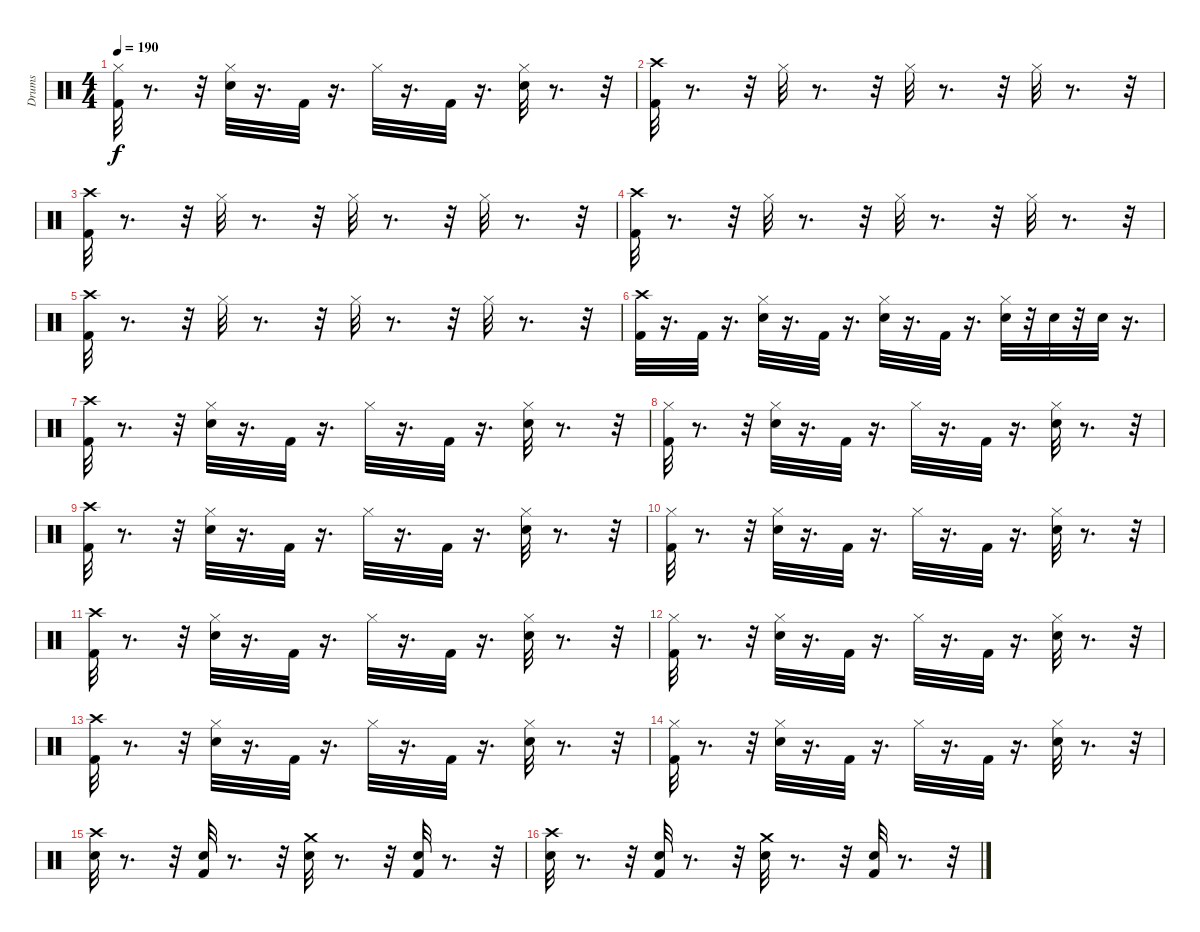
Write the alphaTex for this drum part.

\track ("Drums" "Drums") {instrument percussion}
\staff {score}
\articulation defaults
\ts (4 4)
\tempo 190
\clef neutral
\ks c
("Kick (hit) 2" "Hi-Hat (closed)").32{dy f} r.8{d} r.32 ("Snare (hit) 2" "Hi-Hat (closed)").32 r.16{d} "Kick (hit) 2".32 r.16{d} "Hi-Hat (closed)".32 r.16{d} "Kick (hit) 2".32 r.16{d} ("Snare (hit) 2" "Hi-Hat (closed)").32 r.8{d} r.32 |
("Crash high (hit)" "Kick (hit) 2").32 r.8{d} r.32 "Hi-Hat (closed)".32 r.8{d} r.32 "Hi-Hat (closed)".32 r.8{d} r.32 "Hi-Hat (closed)".32 r.8{d} r.32 |
("Kick (hit) 2" "Crash high (hit)").32 r.8{d} r.32 "Hi-Hat (closed)".32 r.8{d} r.32 "Hi-Hat (closed)".32 r.8{d} r.32 "Hi-Hat (closed)".32 r.8{d} r.32 |
("Kick (hit) 2" "Crash high (hit)").32 r.8{d} r.32 "Hi-Hat (closed)".32 r.8{d} r.32 "Hi-Hat (closed)".32 r.8{d} r.32 "Hi-Hat (closed)".32 r.8{d} r.32 |
("Crash high (hit)" "Kick (hit) 2").32 r.8{d} r.32 "Hi-Hat (closed)".32 r.8{d} r.32 "Hi-Hat (closed)".32 r.8{d} r.32 "Hi-Hat (closed)".32 r.8{d} r.32 |
("Crash high (hit)" "Kick (hit) 2").32 r.16{d} "Kick (hit) 2".32 r.16{d} ("Hi-Hat (closed)" "Snare (hit) 2").32 r.16{d} "Kick (hit) 2".32 r.16{d} ("Snare (hit) 2" "Hi-Hat (closed)").32 r.16{d} "Kick (hit) 2".32 r.16{d} ("Hi-Hat (closed)" "Snare (hit) 2").32 r.32 "Snare (hit) 2".32 r.32 "Snare (hit) 2".32 r.16{d} |
("Kick (hit) 2" "Crash high (hit)").32 r.8{d} r.32 ("Hi-Hat (closed)" "Snare (hit) 2").32 r.16{d} "Kick (hit) 2".32 r.16{d} "Hi-Hat (closed)".32 r.16{d} "Kick (hit) 2".32 r.16{d} ("Hi-Hat (closed)" "Snare (hit) 2").32 r.8{d} r.32 |
("Hi-Hat (closed)" "Kick (hit) 2").32 r.8{d} r.32 ("Snare (hit) 2" "Hi-Hat (closed)").32 r.16{d} "Kick (hit) 2".32 r.16{d} "Hi-Hat (closed)".32 r.16{d} "Kick (hit) 2".32 r.16{d} ("Snare (hit) 2" "Hi-Hat (closed)").32 r.8{d} r.32 |
("Kick (hit) 2" "Crash high (hit)").32 r.8{d} r.32 ("Hi-Hat (closed)" "Snare (hit) 2").32 r.16{d} "Kick (hit) 2".32 r.16{d} "Hi-Hat (closed)".32 r.16{d} "Kick (hit) 2".32 r.16{d} ("Hi-Hat (closed)" "Snare (hit) 2").32 r.8{d} r.32 |
("Hi-Hat (closed)" "Kick (hit) 2").32 r.8{d} r.32 ("Snare (hit) 2" "Hi-Hat (closed)").32 r.16{d} "Kick (hit) 2".32 r.16{d} "Hi-Hat (closed)".32 r.16{d} "Kick (hit) 2".32 r.16{d} ("Snare (hit) 2" "Hi-Hat (closed)").32 r.8{d} r.32 |
("Kick (hit) 2" "Crash high (hit)").32 r.8{d} r.32 ("Hi-Hat (closed)" "Snare (hit) 2").32 r.16{d} "Kick (hit) 2".32 r.16{d} "Hi-Hat (closed)".32 r.16{d} "Kick (hit) 2".32 r.16{d} ("Hi-Hat (closed)" "Snare (hit) 2").32 r.8{d} r.32 |
("Hi-Hat (closed)" "Kick (hit) 2").32 r.8{d} r.32 ("Snare (hit) 2" "Hi-Hat (closed)").32 r.16{d} "Kick (hit) 2".32 r.16{d} "Hi-Hat (closed)".32 r.16{d} "Kick (hit) 2".32 r.16{d} ("Snare (hit) 2" "Hi-Hat (closed)").32 r.8{d} r.32 |
("Kick (hit) 2" "Crash high (hit)").32 r.8{d} r.32 ("Hi-Hat (closed)" "Snare (hit) 2").32 r.16{d} "Kick (hit) 2".32 r.16{d} "Hi-Hat (closed)".32 r.16{d} "Kick (hit) 2".32 r.16{d} ("Hi-Hat (closed)" "Snare (hit) 2").32 r.8{d} r.32 |
("Hi-Hat (closed)" "Kick (hit) 2").32 r.8{d} r.32 ("Snare (hit) 2" "Hi-Hat (closed)").32 r.16{d} "Kick (hit) 2".32 r.16{d} "Hi-Hat (closed)".32 r.16{d} "Kick (hit) 2".32 r.16{d} ("Snare (hit) 2" "Hi-Hat (closed)").32 r.8{d} r.32 |
("Crash high (hit)" "Snare (hit) 2").32 r.8{d} r.32 ("Hand Clap (hit)" "Kick (hit) 2").32 r.8{d} r.32 ("Crash medium (hit)" "Snare (hit) 2").32 r.8{d} r.32 ("Hand Clap (hit)" "Kick (hit) 2").32 r.8{d} r.32 |
("Snare (hit) 2" "Crash high (hit)").32 r.8{d} r.32 ("Hand Clap (hit)" "Kick (hit) 2").32 r.8{d} r.32 ("Crash medium (hit)" "Snare (hit) 2").32 r.8{d} r.32 ("Hand Clap (hit)" "Kick (hit) 2").32 r.8{d} r.32
